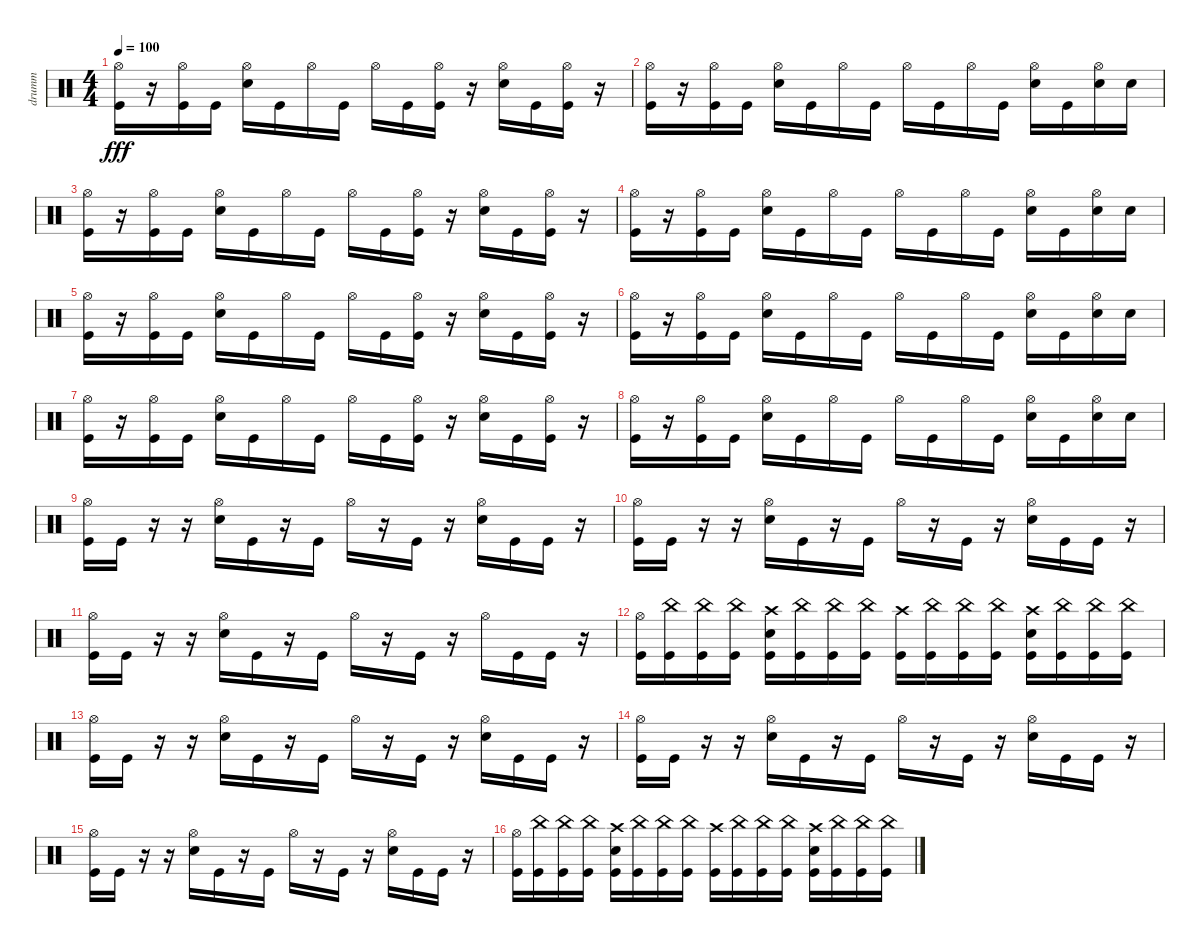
\track ("drumm" "drumm") {instrument percussion}
\staff {score}
\articulation defaults
\ts (4 4)
\tempo 100
\clef neutral
\ks c
("Hi-Hat (open)" "Kick (hit)").16{dy fff} r.16 ("Hi-Hat (open)" "Kick (hit)").16 "Kick (hit)".16 ("Hi-Hat (open)" "Electric Snare (hit)").16 "Kick (hit)".16 "Hi-Hat (open)".16 "Kick (hit)".16 "Hi-Hat (open)".16 "Kick (hit)".16 ("Hi-Hat (open)" "Kick (hit)").16 r.16 ("Hi-Hat (open)" "Electric Snare (hit)").16 "Kick (hit)".16 ("Hi-Hat (open)" "Kick (hit)").16 r.16 |
("Hi-Hat (open)" "Kick (hit)").16 r.16 ("Hi-Hat (open)" "Kick (hit)").16 "Kick (hit)".16 ("Hi-Hat (open)" "Electric Snare (hit)").16 "Kick (hit)".16 "Hi-Hat (open)".16 "Kick (hit)".16 "Hi-Hat (open)".16 "Kick (hit)".16 "Hi-Hat (open)".16 "Kick (hit)".16 ("Hi-Hat (open)" "Electric Snare (hit)").16 "Kick (hit)".16 ("Hi-Hat (open)" "Electric Snare (hit)").16 "Electric Snare (hit)".16 |
("Hi-Hat (open)" "Kick (hit)").16 r.16 ("Hi-Hat (open)" "Kick (hit)").16 "Kick (hit)".16 ("Hi-Hat (open)" "Electric Snare (hit)").16 "Kick (hit)".16 "Hi-Hat (open)".16 "Kick (hit)".16 "Hi-Hat (open)".16 "Kick (hit)".16 ("Hi-Hat (open)" "Kick (hit)").16 r.16 ("Hi-Hat (open)" "Electric Snare (hit)").16 "Kick (hit)".16 ("Hi-Hat (open)" "Kick (hit)").16 r.16 |
("Hi-Hat (open)" "Kick (hit)").16 r.16 ("Hi-Hat (open)" "Kick (hit)").16 "Kick (hit)".16 ("Hi-Hat (open)" "Electric Snare (hit)").16 "Kick (hit)".16 "Hi-Hat (open)".16 "Kick (hit)".16 "Hi-Hat (open)".16 "Kick (hit)".16 "Hi-Hat (open)".16 "Kick (hit)".16 ("Hi-Hat (open)" "Electric Snare (hit)").16 "Kick (hit)".16 ("Hi-Hat (open)" "Electric Snare (hit)").16 "Electric Snare (hit)".16 |
("Hi-Hat (open)" "Kick (hit)").16 r.16 ("Hi-Hat (open)" "Kick (hit)").16 "Kick (hit)".16 ("Hi-Hat (open)" "Electric Snare (hit)").16 "Kick (hit)".16 "Hi-Hat (open)".16 "Kick (hit)".16 "Hi-Hat (open)".16 "Kick (hit)".16 ("Hi-Hat (open)" "Kick (hit)").16 r.16 ("Hi-Hat (open)" "Electric Snare (hit)").16 "Kick (hit)".16 ("Hi-Hat (open)" "Kick (hit)").16 r.16 |
("Hi-Hat (open)" "Kick (hit)").16 r.16 ("Hi-Hat (open)" "Kick (hit)").16 "Kick (hit)".16 ("Hi-Hat (open)" "Electric Snare (hit)").16 "Kick (hit)".16 "Hi-Hat (open)".16 "Kick (hit)".16 "Hi-Hat (open)".16 "Kick (hit)".16 "Hi-Hat (open)".16 "Kick (hit)".16 ("Hi-Hat (open)" "Electric Snare (hit)").16 "Kick (hit)".16 ("Hi-Hat (open)" "Electric Snare (hit)").16 "Electric Snare (hit)".16 |
("Hi-Hat (open)" "Kick (hit)").16 r.16 ("Hi-Hat (open)" "Kick (hit)").16 "Kick (hit)".16 ("Hi-Hat (open)" "Electric Snare (hit)").16 "Kick (hit)".16 "Hi-Hat (open)".16 "Kick (hit)".16 "Hi-Hat (open)".16 "Kick (hit)".16 ("Hi-Hat (open)" "Kick (hit)").16 r.16 ("Hi-Hat (open)" "Electric Snare (hit)").16 "Kick (hit)".16 ("Hi-Hat (open)" "Kick (hit)").16 r.16 |
("Hi-Hat (open)" "Kick (hit)").16 r.16 ("Hi-Hat (open)" "Kick (hit)").16 "Kick (hit)".16 ("Hi-Hat (open)" "Electric Snare (hit)").16 "Kick (hit)".16 "Hi-Hat (open)".16 "Kick (hit)".16 "Hi-Hat (open)".16 "Kick (hit)".16 "Hi-Hat (open)".16 "Kick (hit)".16 ("Hi-Hat (open)" "Electric Snare (hit)").16 "Kick (hit)".16 ("Hi-Hat (open)" "Electric Snare (hit)").16 "Electric Snare (hit)".16 |
("Hi-Hat (open)" "Kick (hit)").16 "Kick (hit)".16 r.16 r.16 ("Hi-Hat (open)" "Electric Snare (hit)").16 "Kick (hit)".16 r.16 "Kick (hit)".16 "Hi-Hat (open)".16 r.16 "Kick (hit)".16 r.16 ("Hi-Hat (open)" "Electric Snare (hit)").16 "Kick (hit)".16 "Kick (hit)".16 r.16 |
("Hi-Hat (open)" "Kick (hit)").16 "Kick (hit)".16 r.16 r.16 ("Hi-Hat (open)" "Electric Snare (hit)").16 "Kick (hit)".16 r.16 "Kick (hit)".16 "Hi-Hat (open)".16 r.16 "Kick (hit)".16 r.16 ("Hi-Hat (open)" "Electric Snare (hit)").16 "Kick (hit)".16 "Kick (hit)".16 r.16 |
("Hi-Hat (open)" "Kick (hit)").16 "Kick (hit)".16 r.16 r.16 ("Hi-Hat (open)" "Electric Snare (hit)").16 "Kick (hit)".16 r.16 "Kick (hit)".16 "Hi-Hat (open)".16 r.16 "Kick (hit)".16 r.16 "Hi-Hat (open)".16 "Kick (hit)".16 "Kick (hit)".16 r.16 |
("Hi-Hat (open)" "Kick (hit)").16 ("China (hit)" "Kick (hit)").16 ("China (hit)" "Kick (hit)").16 ("China (hit)" "Kick (hit)").16 ("Crash high (hit)" "Electric Snare (hit)" "Kick (hit)").16 ("China (hit)" "Kick (hit)").16 ("China (hit)" "Kick (hit)").16 ("China (hit)" "Kick (hit)").16 ("Crash high (hit)" "Kick (hit)").16 ("China (hit)" "Kick (hit)").16 ("China (hit)" "Kick (hit)").16 ("China (hit)" "Kick (hit)").16 ("Crash high (hit)" "Electric Snare (hit)" "Kick (hit)").16 ("China (hit)" "Kick (hit)").16 ("China (hit)" "Kick (hit)").16 ("China (hit)" "Kick (hit)").16 |
("Hi-Hat (open)" "Kick (hit)").16 "Kick (hit)".16 r.16 r.16 ("Hi-Hat (open)" "Electric Snare (hit)").16 "Kick (hit)".16 r.16 "Kick (hit)".16 "Hi-Hat (open)".16 r.16 "Kick (hit)".16 r.16 ("Hi-Hat (open)" "Electric Snare (hit)").16 "Kick (hit)".16 "Kick (hit)".16 r.16 |
("Hi-Hat (open)" "Kick (hit)").16 "Kick (hit)".16 r.16 r.16 ("Hi-Hat (open)" "Electric Snare (hit)").16 "Kick (hit)".16 r.16 "Kick (hit)".16 "Hi-Hat (open)".16 r.16 "Kick (hit)".16 r.16 ("Hi-Hat (open)" "Electric Snare (hit)").16 "Kick (hit)".16 "Kick (hit)".16 r.16 |
("Hi-Hat (open)" "Kick (hit)").16 "Kick (hit)".16 r.16 r.16 ("Hi-Hat (open)" "Electric Snare (hit)").16 "Kick (hit)".16 r.16 "Kick (hit)".16 "Hi-Hat (open)".16 r.16 "Kick (hit)".16 r.16 ("Hi-Hat (open)" "Electric Snare (hit)").16 "Kick (hit)".16 "Kick (hit)".16 r.16 |
("Hi-Hat (open)" "Kick (hit)").16 ("China (hit)" "Kick (hit)").16 ("China (hit)" "Kick (hit)").16 ("China (hit)" "Kick (hit)").16 ("Crash high (hit)" "Electric Snare (hit)" "Kick (hit)").16 ("China (hit)" "Kick (hit)").16 ("China (hit)" "Kick (hit)").16 ("China (hit)" "Kick (hit)").16 ("Crash high (hit)" "Kick (hit)").16 ("China (hit)" "Kick (hit)").16 ("China (hit)" "Kick (hit)").16 ("China (hit)" "Kick (hit)").16 ("Crash high (hit)" "Electric Snare (hit)" "Kick (hit)").16 ("China (hit)" "Kick (hit)").16 ("China (hit)" "Kick (hit)").16 ("China (hit)" "Kick (hit)").16
